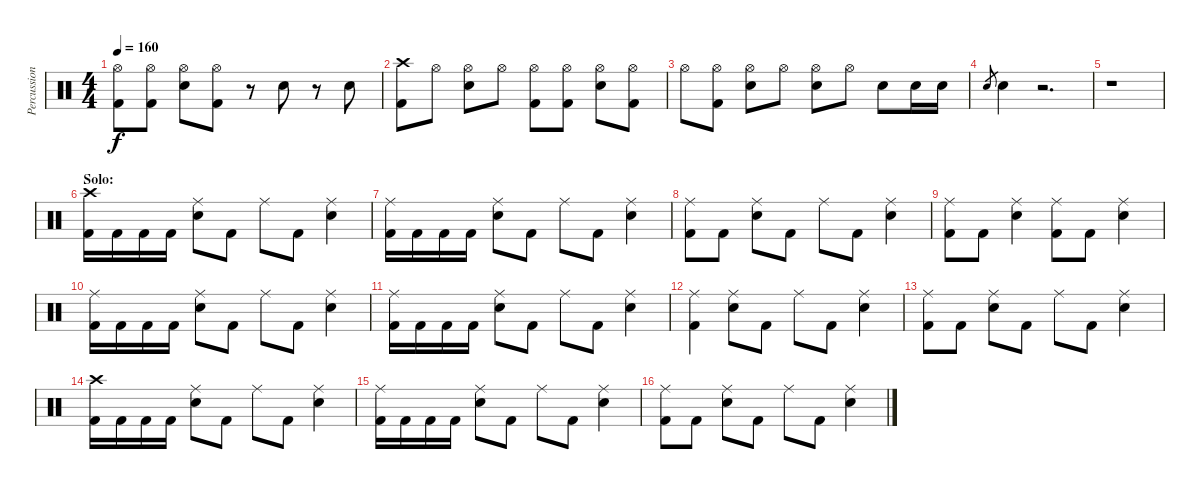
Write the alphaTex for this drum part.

\track ("Percussion" "Percussion") {instrument percussion}
\staff {score}
\articulation defaults
\ts (4 4)
\tempo 160
\clef neutral
\ks c
("Hi-Hat (open)" "Kick (hit) 2").8{dy f} ("Hi-Hat (open)" "Kick (hit) 2").8 ("Hi-Hat (open)" "Snare (hit) 2").8 ("Hi-Hat (open)" "Kick (hit) 2").8 r.8 "Snare (hit) 2".8 r.8 "Snare (hit) 2".8 |
("Crash high (hit)" "Kick (hit) 2").8 "Hi-Hat (open)".8 ("Hi-Hat (open)" "Snare (hit) 2").8 "Hi-Hat (open)".8 ("Hi-Hat (open)" "Kick (hit) 2").8 ("Hi-Hat (open)" "Kick (hit) 2").8 ("Hi-Hat (open)" "Snare (hit) 2").8 ("Hi-Hat (open)" "Kick (hit) 2").8 |
"Hi-Hat (open)".8 ("Hi-Hat (open)" "Kick (hit) 2").8 ("Hi-Hat (open)" "Snare (hit) 2").8 "Hi-Hat (open)".8 ("Hi-Hat (open)" "Snare (hit) 2").8 "Hi-Hat (open)".8 "Snare (hit) 2".8 "Snare (hit) 2".16 "Snare (hit) 2".16 |
"Snare (hit) 2".8{gr} "Snare (hit) 2".4 r.2{d} |
r.1 |
\section ("" "Solo:")
("Crash high (hit)" "Kick (hit) 2").16 "Kick (hit) 2".16 "Kick (hit) 2".16 "Kick (hit) 2".16 ("Ride (middle)" "Snare (hit) 2").8 "Kick (hit) 2".8 "Ride (middle)".8 "Kick (hit) 2".8 ("Ride (middle)" "Snare (hit) 2").4 |
("Ride (middle)" "Kick (hit) 2").16 "Kick (hit) 2".16 "Kick (hit) 2".16 "Kick (hit) 2".16 ("Ride (middle)" "Snare (hit) 2").8 "Kick (hit) 2".8 "Ride (middle)".8 "Kick (hit) 2".8 ("Ride (middle)" "Snare (hit) 2").4 |
("Ride (middle)" "Kick (hit) 2").8 "Kick (hit) 2".8 ("Ride (middle)" "Snare (hit) 2").8 "Kick (hit) 2".8 "Ride (middle)".8 "Kick (hit) 2".8 ("Ride (middle)" "Snare (hit) 2").4 |
("Ride (middle)" "Kick (hit) 2").8 "Kick (hit) 2".8 ("Ride (middle)" "Snare (hit) 2").4 ("Ride (middle)" "Kick (hit) 2").8 "Kick (hit) 2".8 ("Ride (middle)" "Snare (hit) 2").4 |
("Ride (middle)" "Kick (hit) 2").16 "Kick (hit) 2".16 "Kick (hit) 2".16 "Kick (hit) 2".16 ("Ride (middle)" "Snare (hit) 2").8 "Kick (hit) 2".8 "Ride (middle)".8 "Kick (hit) 2".8 ("Ride (middle)" "Snare (hit) 2").4 |
("Ride (middle)" "Kick (hit) 2").16 "Kick (hit) 2".16 "Kick (hit) 2".16 "Kick (hit) 2".16 ("Ride (middle)" "Snare (hit) 2").8 "Kick (hit) 2".8 "Ride (middle)".8 "Kick (hit) 2".8 ("Ride (middle)" "Snare (hit) 2").4 |
("Ride (middle)" "Kick (hit) 2").4 ("Ride (middle)" "Snare (hit) 2").8 "Kick (hit) 2".8 "Ride (middle)".8 "Kick (hit) 2".8 ("Ride (middle)" "Snare (hit) 2").4 |
("Ride (middle)" "Kick (hit) 2").8 "Kick (hit) 2".8 ("Ride (middle)" "Snare (hit) 2").8 "Kick (hit) 2".8 "Ride (middle)".8 "Kick (hit) 2".8 ("Ride (middle)" "Snare (hit) 2").4 |
("Crash high (hit)" "Kick (hit) 2").16 "Kick (hit) 2".16 "Kick (hit) 2".16 "Kick (hit) 2".16 ("Ride (middle)" "Snare (hit) 2").8 "Kick (hit) 2".8 "Ride (middle)".8 "Kick (hit) 2".8 ("Ride (middle)" "Snare (hit) 2").4 |
("Ride (middle)" "Kick (hit) 2").16 "Kick (hit) 2".16 "Kick (hit) 2".16 "Kick (hit) 2".16 ("Ride (middle)" "Snare (hit) 2").8 "Kick (hit) 2".8 "Ride (middle)".8 "Kick (hit) 2".8 ("Ride (middle)" "Snare (hit) 2").4 |
("Ride (middle)" "Kick (hit) 2").8 "Kick (hit) 2".8 ("Ride (middle)" "Snare (hit) 2").8 "Kick (hit) 2".8 "Ride (middle)".8 "Kick (hit) 2".8 ("Ride (middle)" "Snare (hit) 2").4
